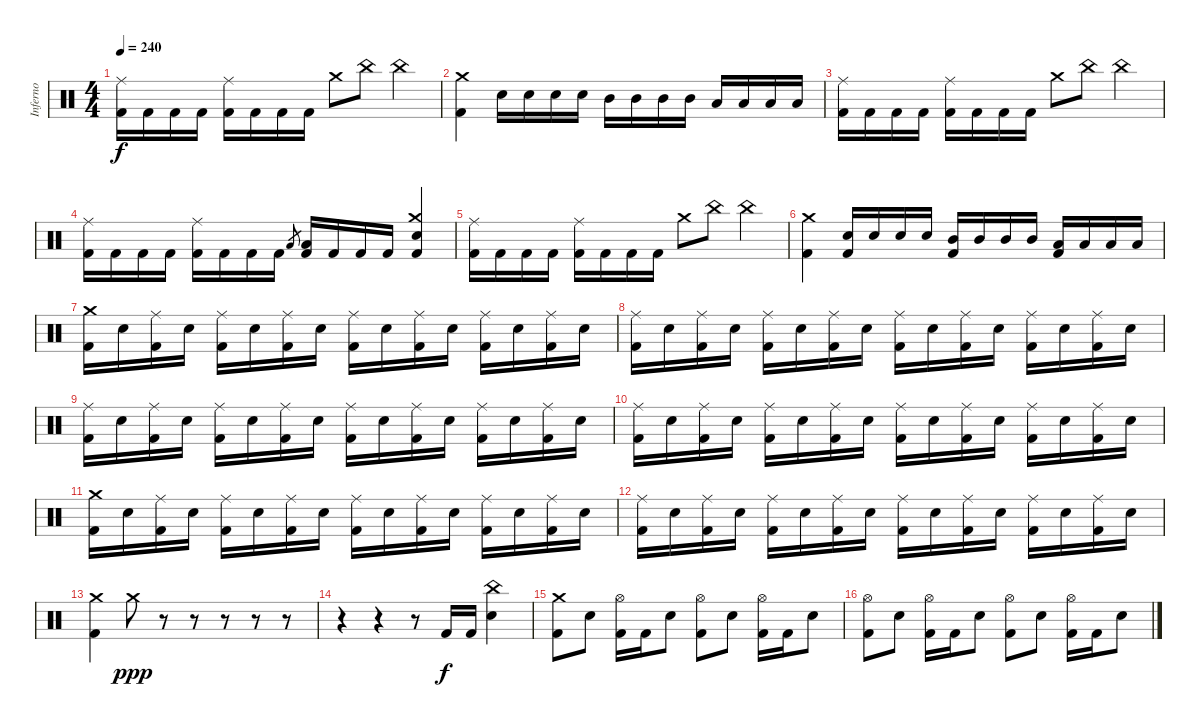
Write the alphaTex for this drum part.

\track ("Inferno" "Inferno") {instrument percussion}
\staff {score}
\articulation defaults
\ts (4 4)
\tempo 240
\clef neutral
\ks c
("Ride (middle)" "Kick (hit) 2").16{dy f} "Kick (hit) 2".16 "Kick (hit) 2".16 "Kick (hit) 2".16 ("Ride (middle)" "Kick (hit) 2").16 "Kick (hit) 2".16 "Kick (hit) 2".16 "Kick (hit) 2".16 "Crash medium (hit)".8 "China (hit)".8 "China (hit)".4 |
("Crash medium (hit)" "Kick (hit) 2").4 "Snare (hit) 2".16 "Snare (hit) 2".16 "Snare (hit) 2".16 "Snare (hit) 2".16 "Mid Tom (hit)".16 "Mid Tom (hit)".16 "Mid Tom (hit)".16 "Mid Tom (hit)".16 "Low Tom (hit)".16 "Low Tom (hit)".16 "Low Tom (hit)".16 "Low Tom (hit)".16 |
("Ride (middle)" "Kick (hit) 2").16 "Kick (hit) 2".16 "Kick (hit) 2".16 "Kick (hit) 2".16 ("Ride (middle)" "Kick (hit) 2").16 "Kick (hit) 2".16 "Kick (hit) 2".16 "Kick (hit) 2".16 "Crash medium (hit)".8 "China (hit)".8 "China (hit)".4 |
("Ride (middle)" "Kick (hit) 2").16 "Kick (hit) 2".16 "Kick (hit) 2".16 "Kick (hit) 2".16 ("Ride (middle)" "Kick (hit) 2").16 "Kick (hit) 2".16 "Kick (hit) 2".16 "Kick (hit) 2".16 "Low Floor Tom (hit)".8{gr} ("Low Floor Tom (hit)" "Kick (hit) 2").16 "Kick (hit) 2".16 "Kick (hit) 2".16 "Kick (hit) 2".16 ("Crash medium (hit)" "Snare (hit) 2" "Kick (hit) 2").4 |
("Ride (middle)" "Kick (hit) 2").16 "Kick (hit) 2".16 "Kick (hit) 2".16 "Kick (hit) 2".16 ("Ride (middle)" "Kick (hit) 2").16 "Kick (hit) 2".16 "Kick (hit) 2".16 "Kick (hit) 2".16 "Crash medium (hit)".8 "China (hit)".8 "China (hit)".4 |
("Crash medium (hit)" "Kick (hit) 2").4 ("Snare (hit) 2" "Kick (hit) 2").16 "Snare (hit) 2".16 "Snare (hit) 2".16 "Snare (hit) 2".16 ("Mid Tom (hit)" "Kick (hit) 2").16 "Mid Tom (hit)".16 "Mid Tom (hit)".16 "Mid Tom (hit)".16 ("Low Tom (hit)" "Kick (hit) 2").16 "Low Tom (hit)".16 "Low Tom (hit)".16 "Low Tom (hit)".16 |
("Crash medium (hit)" "Kick (hit) 2").16 "Snare (hit) 2".16 ("Ride (middle)" "Kick (hit) 2").16 "Snare (hit) 2".16 ("Ride (middle)" "Kick (hit) 2").16 "Snare (hit) 2".16 ("Ride (middle)" "Kick (hit) 2").16 "Snare (hit) 2".16 ("Ride (middle)" "Kick (hit) 2").16 "Snare (hit) 2".16 ("Ride (middle)" "Kick (hit) 2").16 "Snare (hit) 2".16 ("Ride (middle)" "Kick (hit) 2").16 "Snare (hit) 2".16 ("Ride (middle)" "Kick (hit) 2").16 "Snare (hit) 2".16 |
("Ride (middle)" "Kick (hit) 2").16 "Snare (hit) 2".16 ("Ride (middle)" "Kick (hit) 2").16 "Snare (hit) 2".16 ("Ride (middle)" "Kick (hit) 2").16 "Snare (hit) 2".16 ("Ride (middle)" "Kick (hit) 2").16 "Snare (hit) 2".16 ("Ride (middle)" "Kick (hit) 2").16 "Snare (hit) 2".16 ("Ride (middle)" "Kick (hit) 2").16 "Snare (hit) 2".16 ("Ride (middle)" "Kick (hit) 2").16 "Snare (hit) 2".16 ("Ride (middle)" "Kick (hit) 2").16 "Snare (hit) 2".16 |
("Ride (middle)" "Kick (hit) 2").16 "Snare (hit) 2".16 ("Ride (middle)" "Kick (hit) 2").16 "Snare (hit) 2".16 ("Ride (middle)" "Kick (hit) 2").16 "Snare (hit) 2".16 ("Ride (middle)" "Kick (hit) 2").16 "Snare (hit) 2".16 ("Ride (middle)" "Kick (hit) 2").16 "Snare (hit) 2".16 ("Ride (middle)" "Kick (hit) 2").16 "Snare (hit) 2".16 ("Ride (middle)" "Kick (hit) 2").16 "Snare (hit) 2".16 ("Ride (middle)" "Kick (hit) 2").16 "Snare (hit) 2".16 |
("Ride (middle)" "Kick (hit) 2").16 "Snare (hit) 2".16 ("Ride (middle)" "Kick (hit) 2").16 "Snare (hit) 2".16 ("Ride (middle)" "Kick (hit) 2").16 "Snare (hit) 2".16 ("Ride (middle)" "Kick (hit) 2").16 "Snare (hit) 2".16 ("Ride (middle)" "Kick (hit) 2").16 "Snare (hit) 2".16 ("Ride (middle)" "Kick (hit) 2").16 "Snare (hit) 2".16 ("Ride (middle)" "Kick (hit) 2").16 "Snare (hit) 2".16 ("Ride (middle)" "Kick (hit) 2").16 "Snare (hit) 2".16 |
("Crash medium (hit)" "Kick (hit) 2").16 "Snare (hit) 2".16 ("Ride (middle)" "Kick (hit) 2").16 "Snare (hit) 2".16 ("Ride (middle)" "Kick (hit) 2").16 "Snare (hit) 2".16 ("Ride (middle)" "Kick (hit) 2").16 "Snare (hit) 2".16 ("Ride (middle)" "Kick (hit) 2").16 "Snare (hit) 2".16 ("Ride (middle)" "Kick (hit) 2").16 "Snare (hit) 2".16 ("Ride (middle)" "Kick (hit) 2").16 "Snare (hit) 2".16 ("Ride (middle)" "Kick (hit) 2").16 "Snare (hit) 2".16 |
("Ride (middle)" "Kick (hit) 2").16 "Snare (hit) 2".16 ("Ride (middle)" "Kick (hit) 2").16 "Snare (hit) 2".16 ("Ride (middle)" "Kick (hit) 2").16 "Snare (hit) 2".16 ("Ride (middle)" "Kick (hit) 2").16 "Snare (hit) 2".16 ("Ride (middle)" "Kick (hit) 2").16 "Snare (hit) 2".16 ("Ride (middle)" "Kick (hit) 2").16 "Snare (hit) 2".16 ("Ride (middle)" "Kick (hit) 2").16 "Snare (hit) 2".16 ("Ride (middle)" "Kick (hit) 2").16 "Snare (hit) 2".16 |
("Crash medium (hit)" "Kick (hit) 2").4 "Crash medium (hit)".8{dy ppp} r.8 r.8 r.8 r.8 r.8 |
r.4 r.4 r.8 "Kick (hit) 2".16{dy f} "Kick (hit) 2".16 ("China (hit)" "Snare (hit) 2").4 |
("Crash medium (hit)" "Kick (hit) 2").8 "Snare (hit) 2".8 ("Hi-Hat (open)" "Kick (hit) 2").16 "Kick (hit) 2".16 "Snare (hit) 2".8 ("Hi-Hat (open)" "Kick (hit) 2").8 "Snare (hit) 2".8 ("Hi-Hat (open)" "Kick (hit) 2").16 "Kick (hit) 2".16 "Snare (hit) 2".8 |
("Hi-Hat (open)" "Kick (hit) 2").8 "Snare (hit) 2".8 ("Hi-Hat (open)" "Kick (hit) 2").16 "Kick (hit) 2".16 "Snare (hit) 2".8 ("Hi-Hat (open)" "Kick (hit) 2").8 "Snare (hit) 2".8 ("Hi-Hat (open)" "Kick (hit) 2").16 "Kick (hit) 2".16 "Snare (hit) 2".8
